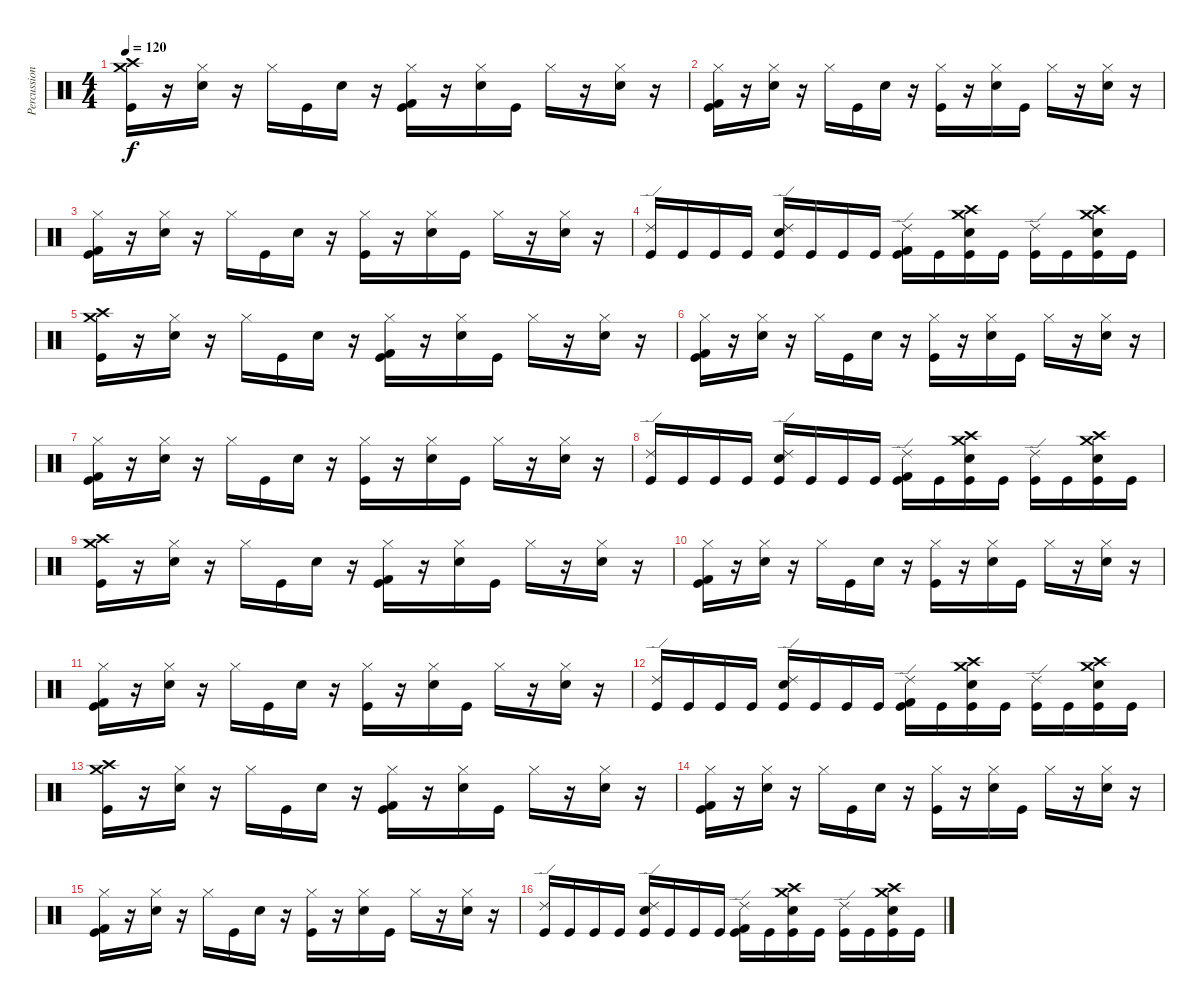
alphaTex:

\track ("Percussion" "Percussion") {instrument percussion}
\staff {score}
\articulation defaults
\ts (4 4)
\tempo 120
\clef neutral
\ks c
("Crash medium (hit)" "Crash high (hit)" "Kick (hit)").16{dy f} r.16 ("Hi-Hat (closed)" "Snare (hit) 2").16 r.16 "Hi-Hat (closed)".16 "Kick (hit)".16 "Snare (hit) 2".16 r.16 ("Hi-Hat (closed)" "Kick (hit) 2" "Kick (hit)").16 r.16 ("Hi-Hat (closed)" "Snare (hit) 2").16 "Kick (hit)".16 "Hi-Hat (closed)".16 r.16 ("Hi-Hat (closed)" "Snare (hit) 2").16 r.16 |
("Hi-Hat (closed)" "Kick (hit) 2" "Kick (hit)").16 r.16 ("Hi-Hat (closed)" "Snare (hit) 2").16 r.16 "Hi-Hat (closed)".16 "Kick (hit)".16 "Snare (hit) 2".16 r.16 ("Hi-Hat (closed)" "Kick (hit)").16 r.16 ("Hi-Hat (closed)" "Snare (hit) 2").16 "Kick (hit)".16 "Hi-Hat (closed)".16 r.16 ("Hi-Hat (closed)" "Snare (hit) 2").16 r.16 |
("Hi-Hat (closed)" "Kick (hit) 2" "Kick (hit)").16 r.16 ("Hi-Hat (closed)" "Snare (hit) 2").16 r.16 "Hi-Hat (closed)".16 "Kick (hit)".16 "Snare (hit) 2".16 r.16 ("Hi-Hat (closed)" "Kick (hit)").16 r.16 ("Hi-Hat (closed)" "Snare (hit) 2").16 "Kick (hit)".16 "Hi-Hat (closed)".16 r.16 ("Hi-Hat (closed)" "Snare (hit) 2").16 r.16 |
("Ride (edge) 2" "Kick (hit)").16 "Kick (hit)".16 "Kick (hit)".16 "Kick (hit)".16 ("Snare (hit) 2" "Ride (edge) 2" "Kick (hit)").16 "Kick (hit)".16 "Kick (hit)".16 "Kick (hit)".16 ("Ride (edge) 2" "Kick (hit) 2" "Kick (hit)").16 "Kick (hit)".16 ("Crash high (hit)" "Snare (hit) 2" "Crash medium (hit)" "Kick (hit)").16 "Kick (hit)".16 ("Ride (edge) 2" "Kick (hit)").16 "Kick (hit)".16 ("Snare (hit) 2" "Crash high (hit)" "Crash medium (hit)" "Kick (hit)").16 "Kick (hit)".16 |
("Crash medium (hit)" "Crash high (hit)" "Kick (hit)").16 r.16 ("Hi-Hat (closed)" "Snare (hit) 2").16 r.16 "Hi-Hat (closed)".16 "Kick (hit)".16 "Snare (hit) 2".16 r.16 ("Hi-Hat (closed)" "Kick (hit) 2" "Kick (hit)").16 r.16 ("Hi-Hat (closed)" "Snare (hit) 2").16 "Kick (hit)".16 "Hi-Hat (closed)".16 r.16 ("Hi-Hat (closed)" "Snare (hit) 2").16 r.16 |
("Hi-Hat (closed)" "Kick (hit) 2" "Kick (hit)").16 r.16 ("Hi-Hat (closed)" "Snare (hit) 2").16 r.16 "Hi-Hat (closed)".16 "Kick (hit)".16 "Snare (hit) 2".16 r.16 ("Hi-Hat (closed)" "Kick (hit)").16 r.16 ("Hi-Hat (closed)" "Snare (hit) 2").16 "Kick (hit)".16 "Hi-Hat (closed)".16 r.16 ("Hi-Hat (closed)" "Snare (hit) 2").16 r.16 |
("Hi-Hat (closed)" "Kick (hit) 2" "Kick (hit)").16 r.16 ("Hi-Hat (closed)" "Snare (hit) 2").16 r.16 "Hi-Hat (closed)".16 "Kick (hit)".16 "Snare (hit) 2".16 r.16 ("Hi-Hat (closed)" "Kick (hit)").16 r.16 ("Hi-Hat (closed)" "Snare (hit) 2").16 "Kick (hit)".16 "Hi-Hat (closed)".16 r.16 ("Hi-Hat (closed)" "Snare (hit) 2").16 r.16 |
("Ride (edge) 2" "Kick (hit)").16 "Kick (hit)".16 "Kick (hit)".16 "Kick (hit)".16 ("Snare (hit) 2" "Ride (edge) 2" "Kick (hit)").16 "Kick (hit)".16 "Kick (hit)".16 "Kick (hit)".16 ("Ride (edge) 2" "Kick (hit) 2" "Kick (hit)").16 "Kick (hit)".16 ("Crash high (hit)" "Snare (hit) 2" "Crash medium (hit)" "Kick (hit)").16 "Kick (hit)".16 ("Ride (edge) 2" "Kick (hit)").16 "Kick (hit)".16 ("Snare (hit) 2" "Crash high (hit)" "Crash medium (hit)" "Kick (hit)").16 "Kick (hit)".16 |
("Crash medium (hit)" "Crash high (hit)" "Kick (hit)").16 r.16 ("Hi-Hat (closed)" "Snare (hit) 2").16 r.16 "Hi-Hat (closed)".16 "Kick (hit)".16 "Snare (hit) 2".16 r.16 ("Hi-Hat (closed)" "Kick (hit) 2" "Kick (hit)").16 r.16 ("Hi-Hat (closed)" "Snare (hit) 2").16 "Kick (hit)".16 "Hi-Hat (closed)".16 r.16 ("Hi-Hat (closed)" "Snare (hit) 2").16 r.16 |
("Hi-Hat (closed)" "Kick (hit) 2" "Kick (hit)").16 r.16 ("Hi-Hat (closed)" "Snare (hit) 2").16 r.16 "Hi-Hat (closed)".16 "Kick (hit)".16 "Snare (hit) 2".16 r.16 ("Hi-Hat (closed)" "Kick (hit)").16 r.16 ("Hi-Hat (closed)" "Snare (hit) 2").16 "Kick (hit)".16 "Hi-Hat (closed)".16 r.16 ("Hi-Hat (closed)" "Snare (hit) 2").16 r.16 |
("Hi-Hat (closed)" "Kick (hit) 2" "Kick (hit)").16 r.16 ("Hi-Hat (closed)" "Snare (hit) 2").16 r.16 "Hi-Hat (closed)".16 "Kick (hit)".16 "Snare (hit) 2".16 r.16 ("Hi-Hat (closed)" "Kick (hit)").16 r.16 ("Hi-Hat (closed)" "Snare (hit) 2").16 "Kick (hit)".16 "Hi-Hat (closed)".16 r.16 ("Hi-Hat (closed)" "Snare (hit) 2").16 r.16 |
("Ride (edge) 2" "Kick (hit)").16 "Kick (hit)".16 "Kick (hit)".16 "Kick (hit)".16 ("Snare (hit) 2" "Ride (edge) 2" "Kick (hit)").16 "Kick (hit)".16 "Kick (hit)".16 "Kick (hit)".16 ("Ride (edge) 2" "Kick (hit) 2" "Kick (hit)").16 "Kick (hit)".16 ("Crash high (hit)" "Snare (hit) 2" "Crash medium (hit)" "Kick (hit)").16 "Kick (hit)".16 ("Ride (edge) 2" "Kick (hit)").16 "Kick (hit)".16 ("Snare (hit) 2" "Crash high (hit)" "Crash medium (hit)" "Kick (hit)").16 "Kick (hit)".16 |
("Crash medium (hit)" "Crash high (hit)" "Kick (hit)").16 r.16 ("Hi-Hat (closed)" "Snare (hit) 2").16 r.16 "Hi-Hat (closed)".16 "Kick (hit)".16 "Snare (hit) 2".16 r.16 ("Hi-Hat (closed)" "Kick (hit) 2" "Kick (hit)").16 r.16 ("Hi-Hat (closed)" "Snare (hit) 2").16 "Kick (hit)".16 "Hi-Hat (closed)".16 r.16 ("Hi-Hat (closed)" "Snare (hit) 2").16 r.16 |
("Hi-Hat (closed)" "Kick (hit) 2" "Kick (hit)").16 r.16 ("Hi-Hat (closed)" "Snare (hit) 2").16 r.16 "Hi-Hat (closed)".16 "Kick (hit)".16 "Snare (hit) 2".16 r.16 ("Hi-Hat (closed)" "Kick (hit)").16 r.16 ("Hi-Hat (closed)" "Snare (hit) 2").16 "Kick (hit)".16 "Hi-Hat (closed)".16 r.16 ("Hi-Hat (closed)" "Snare (hit) 2").16 r.16 |
("Hi-Hat (closed)" "Kick (hit) 2" "Kick (hit)").16 r.16 ("Hi-Hat (closed)" "Snare (hit) 2").16 r.16 "Hi-Hat (closed)".16 "Kick (hit)".16 "Snare (hit) 2".16 r.16 ("Hi-Hat (closed)" "Kick (hit)").16 r.16 ("Hi-Hat (closed)" "Snare (hit) 2").16 "Kick (hit)".16 "Hi-Hat (closed)".16 r.16 ("Hi-Hat (closed)" "Snare (hit) 2").16 r.16 |
("Ride (edge) 2" "Kick (hit)").16 "Kick (hit)".16 "Kick (hit)".16 "Kick (hit)".16 ("Snare (hit) 2" "Ride (edge) 2" "Kick (hit)").16 "Kick (hit)".16 "Kick (hit)".16 "Kick (hit)".16 ("Ride (edge) 2" "Kick (hit) 2" "Kick (hit)").16 "Kick (hit)".16 ("Crash high (hit)" "Snare (hit) 2" "Crash medium (hit)" "Kick (hit)").16 "Kick (hit)".16 ("Ride (edge) 2" "Kick (hit)").16 "Kick (hit)".16 ("Snare (hit) 2" "Crash high (hit)" "Crash medium (hit)" "Kick (hit)").16 "Kick (hit)".16
